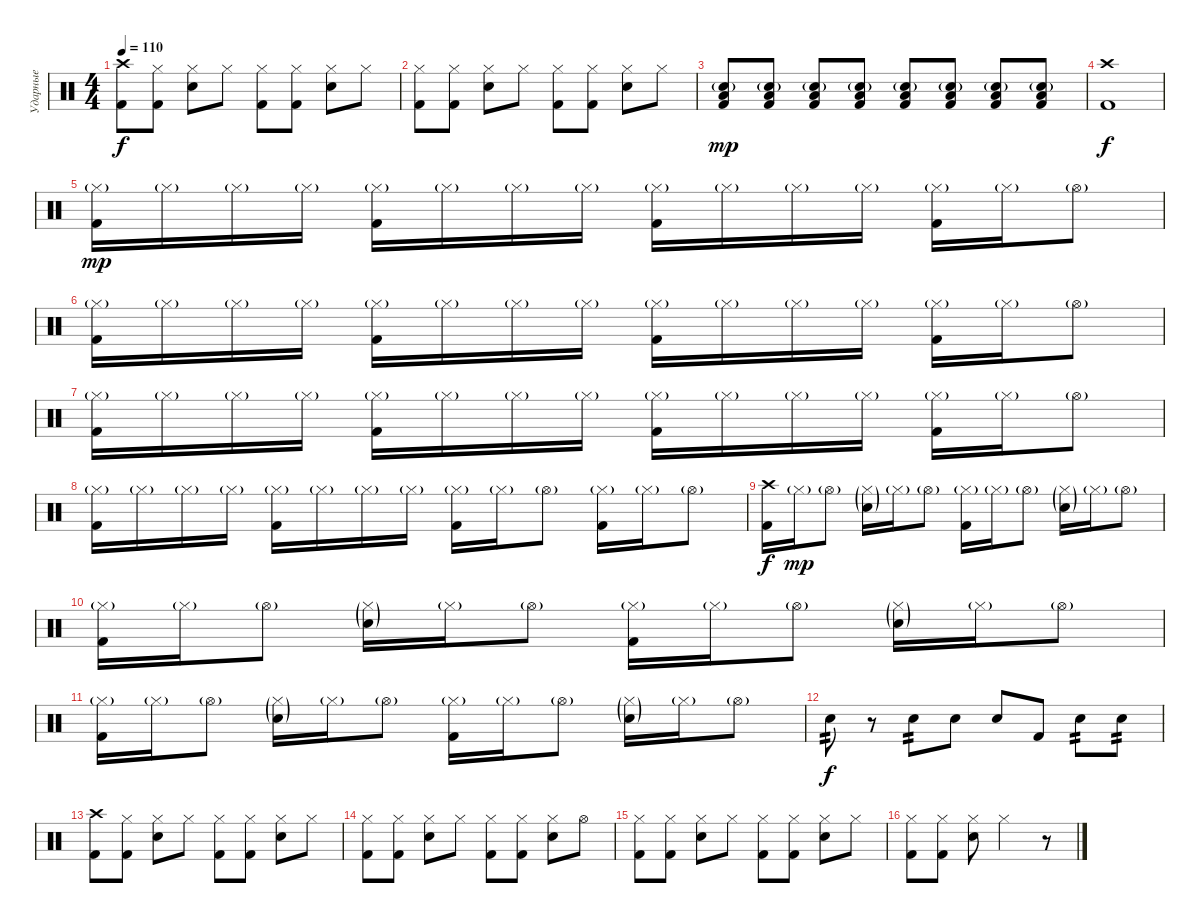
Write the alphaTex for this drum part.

\track ("Ударные" "Ударные") {instrument percussion}
\staff {score}
\articulation defaults
\ts (4 4)
\tempo 110
\clef neutral
\ks c
("Kick (hit) 2" "Crash high (hit)").8{dy f} ("Kick (hit) 2" "Hi-Hat (closed)").8 ("Snare (hit) 2" "Hi-Hat (closed)").8 "Hi-Hat (closed)".8 ("Kick (hit) 2" "Hi-Hat (closed)").8 ("Kick (hit) 2" "Hi-Hat (closed)").8 ("Snare (hit) 2" "Hi-Hat (closed)").8 "Hi-Hat (closed)".8 |
("Kick (hit) 2" "Hi-Hat (closed)").8 ("Kick (hit) 2" "Hi-Hat (closed)").8 ("Snare (hit) 2" "Hi-Hat (closed)").8 "Hi-Hat (closed)".8 ("Kick (hit) 2" "Hi-Hat (closed)").8 ("Kick (hit) 2" "Hi-Hat (closed)").8 ("Snare (hit) 2" "Hi-Hat (closed)").8 "Hi-Hat (closed)".8 |
("Snare (hit) 2"{g} "Low Floor Tom (hit)" "Kick (hit) 2").8{dy mp} ("Snare (hit) 2"{g} "Low Floor Tom (hit)" "Kick (hit) 2").8 ("Snare (hit) 2"{g} "Low Floor Tom (hit)" "Kick (hit) 2").8 ("Snare (hit) 2"{g} "Low Floor Tom (hit)" "Kick (hit) 2").8 ("Snare (hit) 2"{g} "Low Floor Tom (hit)" "Kick (hit) 2").8 ("Snare (hit) 2"{g} "Low Floor Tom (hit)" "Kick (hit) 2").8 ("Snare (hit) 2"{g} "Low Floor Tom (hit)" "Kick (hit) 2").8 ("Snare (hit) 2"{g} "Low Floor Tom (hit)" "Kick (hit) 2").8 |
("Kick (hit) 2" "Crash high (hit)").1{dy f} |
("Hi-Hat (closed)"{g} "Kick (hit) 2").16{dy mp volume 11} "Hi-Hat (closed)"{g}.16 "Hi-Hat (closed)"{g}.16 "Hi-Hat (closed)"{g}.16 ("Hi-Hat (closed)"{g} "Kick (hit) 2").16 "Hi-Hat (closed)"{g}.16 "Hi-Hat (closed)"{g}.16 "Hi-Hat (closed)"{g}.16 ("Hi-Hat (closed)"{g} "Kick (hit) 2").16 "Hi-Hat (closed)"{g}.16 "Hi-Hat (closed)"{g}.16 "Hi-Hat (closed)"{g}.16 ("Hi-Hat (closed)"{g} "Kick (hit) 2").16 "Hi-Hat (closed)"{g}.16 "Hi-Hat (open)"{g}.8 |
("Hi-Hat (closed)"{g} "Kick (hit) 2").16 "Hi-Hat (closed)"{g}.16 "Hi-Hat (closed)"{g}.16 "Hi-Hat (closed)"{g}.16 ("Hi-Hat (closed)"{g} "Kick (hit) 2").16 "Hi-Hat (closed)"{g}.16 "Hi-Hat (closed)"{g}.16 "Hi-Hat (closed)"{g}.16 ("Hi-Hat (closed)"{g} "Kick (hit) 2").16 "Hi-Hat (closed)"{g}.16 "Hi-Hat (closed)"{g}.16 "Hi-Hat (closed)"{g}.16 ("Hi-Hat (closed)"{g} "Kick (hit) 2").16 "Hi-Hat (closed)"{g}.16 "Hi-Hat (open)"{g}.8 |
("Hi-Hat (closed)"{g} "Kick (hit) 2").16 "Hi-Hat (closed)"{g}.16 "Hi-Hat (closed)"{g}.16 "Hi-Hat (closed)"{g}.16 ("Hi-Hat (closed)"{g} "Kick (hit) 2").16 "Hi-Hat (closed)"{g}.16 "Hi-Hat (closed)"{g}.16 "Hi-Hat (closed)"{g}.16 ("Hi-Hat (closed)"{g} "Kick (hit) 2").16 "Hi-Hat (closed)"{g}.16 "Hi-Hat (closed)"{g}.16 "Hi-Hat (closed)"{g}.16 ("Hi-Hat (closed)"{g} "Kick (hit) 2").16 "Hi-Hat (closed)"{g}.16 "Hi-Hat (open)"{g}.8 |
("Hi-Hat (closed)"{g} "Kick (hit) 2").16 "Hi-Hat (closed)"{g}.16 "Hi-Hat (closed)"{g}.16 "Hi-Hat (closed)"{g}.16 ("Hi-Hat (closed)"{g} "Kick (hit) 2").16 "Hi-Hat (closed)"{g}.16 "Hi-Hat (closed)"{g}.16 "Hi-Hat (closed)"{g}.16 ("Hi-Hat (closed)"{g} "Kick (hit) 2").16 "Hi-Hat (closed)"{g}.16 "Hi-Hat (open)"{g}.8 ("Hi-Hat (closed)"{g} "Kick (hit) 2").16 "Hi-Hat (closed)"{g}.16 "Hi-Hat (open)"{g}.8 |
("Crash high (hit)" "Kick (hit) 2").16{dy f volume 14} "Hi-Hat (closed)"{g}.16{dy mp} "Hi-Hat (open)"{g}.8 ("Hi-Hat (closed)"{g} "Snare (hit) 2"{g}).16 "Hi-Hat (closed)"{g}.16 "Hi-Hat (open)"{g}.8 ("Hi-Hat (closed)"{g} "Kick (hit) 2").16 "Hi-Hat (closed)"{g}.16 "Hi-Hat (open)"{g}.8 ("Hi-Hat (closed)"{g} "Snare (hit) 2"{g}).16 "Hi-Hat (closed)"{g}.16 "Hi-Hat (open)"{g}.8 |
("Hi-Hat (closed)"{g} "Kick (hit) 2").16 "Hi-Hat (closed)"{g}.16 "Hi-Hat (open)"{g}.8 ("Hi-Hat (closed)"{g} "Snare (hit) 2"{g}).16 "Hi-Hat (closed)"{g}.16 "Hi-Hat (open)"{g}.8 ("Hi-Hat (closed)"{g} "Kick (hit) 2").16 "Hi-Hat (closed)"{g}.16 "Hi-Hat (open)"{g}.8 ("Hi-Hat (closed)"{g} "Snare (hit) 2"{g}).16 "Hi-Hat (closed)"{g}.16 "Hi-Hat (open)"{g}.8 |
("Hi-Hat (closed)"{g} "Kick (hit) 2").16 "Hi-Hat (closed)"{g}.16 "Hi-Hat (open)"{g}.8 ("Hi-Hat (closed)"{g} "Snare (hit) 2"{g}).16 "Hi-Hat (closed)"{g}.16 "Hi-Hat (open)"{g}.8 ("Hi-Hat (closed)"{g} "Kick (hit) 2").16 "Hi-Hat (closed)"{g}.16 "Hi-Hat (open)"{g}.8 ("Hi-Hat (closed)"{g} "Snare (hit) 2"{g}).16 "Hi-Hat (closed)"{g}.16 "Hi-Hat (open)"{g}.8 |
"Snare (hit) 2".8{tp 2 dy f} r.8 "Snare (hit) 2".8{tp 2} "Snare (hit) 2".8 "Snare (hit) 2".8 "Kick (hit) 2".8 "Snare (hit) 2".8{tp 2} "Snare (hit) 2".8{tp 2} |
("Kick (hit) 2" "Crash high (hit)").8 ("Kick (hit) 2" "Hi-Hat (closed)").8 ("Snare (hit) 2" "Hi-Hat (closed)").8 "Hi-Hat (closed)".8 ("Kick (hit) 2" "Hi-Hat (closed)").8 ("Kick (hit) 2" "Hi-Hat (closed)").8 ("Snare (hit) 2" "Hi-Hat (closed)").8 "Hi-Hat (closed)".8 |
("Kick (hit) 2" "Hi-Hat (closed)").8 ("Kick (hit) 2" "Hi-Hat (closed)").8 ("Snare (hit) 2" "Hi-Hat (closed)").8 "Hi-Hat (closed)".8 ("Kick (hit) 2" "Hi-Hat (closed)").8 ("Kick (hit) 2" "Hi-Hat (closed)").8 ("Snare (hit) 2" "Hi-Hat (closed)").8 "Hi-Hat (open)".8 |
("Kick (hit) 2" "Hi-Hat (closed)").8 ("Kick (hit) 2" "Hi-Hat (closed)").8 ("Snare (hit) 2" "Hi-Hat (closed)").8 "Hi-Hat (closed)".8 ("Kick (hit) 2" "Hi-Hat (closed)").8 ("Kick (hit) 2" "Hi-Hat (closed)").8 ("Snare (hit) 2" "Hi-Hat (closed)").8 "Hi-Hat (closed)".8 |
("Kick (hit) 2" "Hi-Hat (closed)").8 ("Kick (hit) 2" "Hi-Hat (closed)").8 ("Snare (hit) 2" "Hi-Hat (closed)").8 "Hi-Hat (closed)".2 r.8
